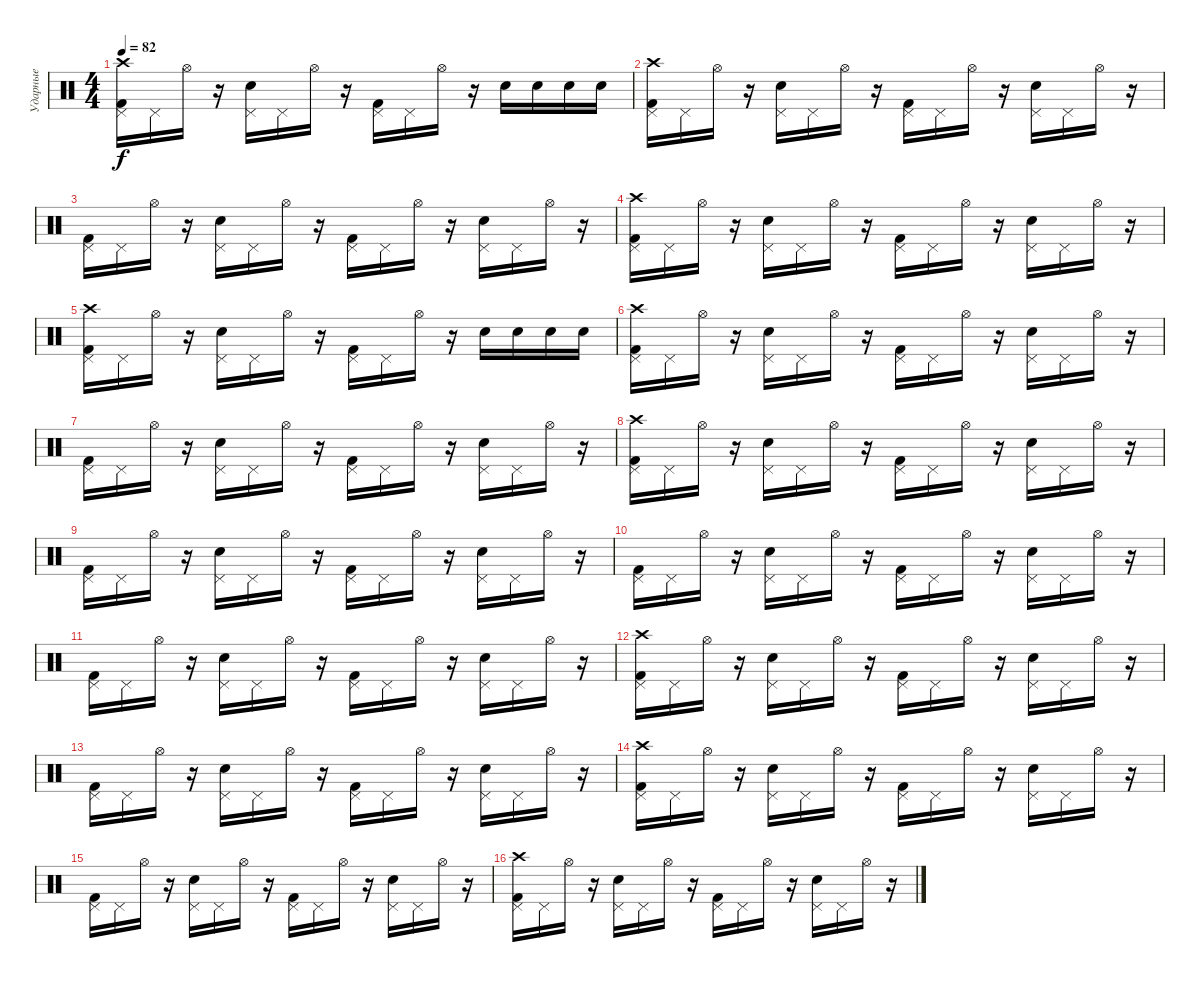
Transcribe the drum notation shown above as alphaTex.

\track ("Ударные" "Ударные") {instrument percussion}
\staff {score}
\articulation defaults
\ts (4 4)
\tempo 82
\clef neutral
\ks c
("Crash high (hit)" "Pedal Hi-Hat (hit)" "Kick (hit) 2").16{dy f} "Pedal Hi-Hat (hit)".16 "Hi-Hat (open)".16 r.16 ("Pedal Hi-Hat (hit)" "Electric Snare (hit)").16 "Pedal Hi-Hat (hit)".16 "Hi-Hat (open)".16 r.16 ("Pedal Hi-Hat (hit)" "Kick (hit) 2").16 "Pedal Hi-Hat (hit)".16 "Hi-Hat (open)".16 r.16 "Electric Snare (hit)".16 "Electric Snare (hit)".16 "Electric Snare (hit)".16 "Electric Snare (hit)".16 |
("Crash high (hit)" "Pedal Hi-Hat (hit)" "Kick (hit) 2").16 "Pedal Hi-Hat (hit)".16 "Hi-Hat (open)".16 r.16 ("Pedal Hi-Hat (hit)" "Electric Snare (hit)").16 "Pedal Hi-Hat (hit)".16 "Hi-Hat (open)".16 r.16 ("Pedal Hi-Hat (hit)" "Kick (hit) 2").16 "Pedal Hi-Hat (hit)".16 "Hi-Hat (open)".16 r.16 ("Pedal Hi-Hat (hit)" "Electric Snare (hit)").16 "Pedal Hi-Hat (hit)".16 "Hi-Hat (open)".16 r.16 |
("Pedal Hi-Hat (hit)" "Kick (hit) 2").16 "Pedal Hi-Hat (hit)".16 "Hi-Hat (open)".16 r.16 ("Pedal Hi-Hat (hit)" "Electric Snare (hit)").16 "Pedal Hi-Hat (hit)".16 "Hi-Hat (open)".16 r.16 ("Pedal Hi-Hat (hit)" "Kick (hit) 2").16 "Pedal Hi-Hat (hit)".16 "Hi-Hat (open)".16 r.16 ("Pedal Hi-Hat (hit)" "Electric Snare (hit)").16 "Pedal Hi-Hat (hit)".16 "Hi-Hat (open)".16 r.16 |
("Crash high (hit)" "Pedal Hi-Hat (hit)" "Kick (hit) 2").16 "Pedal Hi-Hat (hit)".16 "Hi-Hat (open)".16 r.16 ("Pedal Hi-Hat (hit)" "Electric Snare (hit)").16 "Pedal Hi-Hat (hit)".16 "Hi-Hat (open)".16 r.16 ("Pedal Hi-Hat (hit)" "Kick (hit) 2").16 "Pedal Hi-Hat (hit)".16 "Hi-Hat (open)".16 r.16 ("Pedal Hi-Hat (hit)" "Electric Snare (hit)").16 "Pedal Hi-Hat (hit)".16 "Hi-Hat (open)".16 r.16 |
("Crash high (hit)" "Pedal Hi-Hat (hit)" "Kick (hit) 2").16 "Pedal Hi-Hat (hit)".16 "Hi-Hat (open)".16 r.16 ("Pedal Hi-Hat (hit)" "Electric Snare (hit)").16 "Pedal Hi-Hat (hit)".16 "Hi-Hat (open)".16 r.16 ("Pedal Hi-Hat (hit)" "Kick (hit) 2").16 "Pedal Hi-Hat (hit)".16 "Hi-Hat (open)".16 r.16 "Electric Snare (hit)".16 "Electric Snare (hit)".16 "Electric Snare (hit)".16 "Electric Snare (hit)".16 |
("Crash high (hit)" "Pedal Hi-Hat (hit)" "Kick (hit) 2").16 "Pedal Hi-Hat (hit)".16 "Hi-Hat (open)".16 r.16 ("Pedal Hi-Hat (hit)" "Electric Snare (hit)").16 "Pedal Hi-Hat (hit)".16 "Hi-Hat (open)".16 r.16 ("Pedal Hi-Hat (hit)" "Kick (hit) 2").16 "Pedal Hi-Hat (hit)".16 "Hi-Hat (open)".16 r.16 ("Pedal Hi-Hat (hit)" "Electric Snare (hit)").16 "Pedal Hi-Hat (hit)".16 "Hi-Hat (open)".16 r.16 |
("Pedal Hi-Hat (hit)" "Kick (hit) 2").16 "Pedal Hi-Hat (hit)".16 "Hi-Hat (open)".16 r.16 ("Pedal Hi-Hat (hit)" "Electric Snare (hit)").16 "Pedal Hi-Hat (hit)".16 "Hi-Hat (open)".16 r.16 ("Pedal Hi-Hat (hit)" "Kick (hit) 2").16 "Pedal Hi-Hat (hit)".16 "Hi-Hat (open)".16 r.16 ("Pedal Hi-Hat (hit)" "Electric Snare (hit)").16 "Pedal Hi-Hat (hit)".16 "Hi-Hat (open)".16 r.16 |
("Crash high (hit)" "Pedal Hi-Hat (hit)" "Kick (hit) 2").16 "Pedal Hi-Hat (hit)".16 "Hi-Hat (open)".16 r.16 ("Pedal Hi-Hat (hit)" "Electric Snare (hit)").16 "Pedal Hi-Hat (hit)".16 "Hi-Hat (open)".16 r.16 ("Pedal Hi-Hat (hit)" "Kick (hit) 2").16 "Pedal Hi-Hat (hit)".16 "Hi-Hat (open)".16 r.16 ("Pedal Hi-Hat (hit)" "Electric Snare (hit)").16 "Pedal Hi-Hat (hit)".16 "Hi-Hat (open)".16 r.16 |
("Pedal Hi-Hat (hit)" "Kick (hit) 2").16 "Pedal Hi-Hat (hit)".16 "Hi-Hat (open)".16 r.16 ("Pedal Hi-Hat (hit)" "Electric Snare (hit)").16 "Pedal Hi-Hat (hit)".16 "Hi-Hat (open)".16 r.16 ("Pedal Hi-Hat (hit)" "Kick (hit) 2").16 "Pedal Hi-Hat (hit)".16 "Hi-Hat (open)".16 r.16 ("Pedal Hi-Hat (hit)" "Electric Snare (hit)").16 "Pedal Hi-Hat (hit)".16 "Hi-Hat (open)".16 r.16 |
("Pedal Hi-Hat (hit)" "Kick (hit) 2").16 "Pedal Hi-Hat (hit)".16 "Hi-Hat (open)".16 r.16 ("Pedal Hi-Hat (hit)" "Electric Snare (hit)").16 "Pedal Hi-Hat (hit)".16 "Hi-Hat (open)".16 r.16 ("Pedal Hi-Hat (hit)" "Kick (hit) 2").16 "Pedal Hi-Hat (hit)".16 "Hi-Hat (open)".16 r.16 ("Pedal Hi-Hat (hit)" "Electric Snare (hit)").16 "Pedal Hi-Hat (hit)".16 "Hi-Hat (open)".16 r.16 |
("Pedal Hi-Hat (hit)" "Kick (hit) 2").16 "Pedal Hi-Hat (hit)".16 "Hi-Hat (open)".16 r.16 ("Pedal Hi-Hat (hit)" "Electric Snare (hit)").16 "Pedal Hi-Hat (hit)".16 "Hi-Hat (open)".16 r.16 ("Pedal Hi-Hat (hit)" "Kick (hit) 2").16 "Pedal Hi-Hat (hit)".16 "Hi-Hat (open)".16 r.16 ("Pedal Hi-Hat (hit)" "Electric Snare (hit)").16 "Pedal Hi-Hat (hit)".16 "Hi-Hat (open)".16 r.16 |
("Crash high (hit)" "Pedal Hi-Hat (hit)" "Kick (hit) 2").16 "Pedal Hi-Hat (hit)".16 "Hi-Hat (open)".16 r.16 ("Pedal Hi-Hat (hit)" "Electric Snare (hit)").16 "Pedal Hi-Hat (hit)".16 "Hi-Hat (open)".16 r.16 ("Pedal Hi-Hat (hit)" "Kick (hit) 2").16 "Pedal Hi-Hat (hit)".16 "Hi-Hat (open)".16 r.16 ("Pedal Hi-Hat (hit)" "Electric Snare (hit)").16 "Pedal Hi-Hat (hit)".16 "Hi-Hat (open)".16 r.16 |
("Pedal Hi-Hat (hit)" "Kick (hit) 2").16 "Pedal Hi-Hat (hit)".16 "Hi-Hat (open)".16 r.16 ("Pedal Hi-Hat (hit)" "Electric Snare (hit)").16 "Pedal Hi-Hat (hit)".16 "Hi-Hat (open)".16 r.16 ("Pedal Hi-Hat (hit)" "Kick (hit) 2").16 "Pedal Hi-Hat (hit)".16 "Hi-Hat (open)".16 r.16 ("Pedal Hi-Hat (hit)" "Electric Snare (hit)").16 "Pedal Hi-Hat (hit)".16 "Hi-Hat (open)".16 r.16 |
("Crash high (hit)" "Pedal Hi-Hat (hit)" "Kick (hit) 2").16 "Pedal Hi-Hat (hit)".16 "Hi-Hat (open)".16 r.16 ("Pedal Hi-Hat (hit)" "Electric Snare (hit)").16 "Pedal Hi-Hat (hit)".16 "Hi-Hat (open)".16 r.16 ("Pedal Hi-Hat (hit)" "Kick (hit) 2").16 "Pedal Hi-Hat (hit)".16 "Hi-Hat (open)".16 r.16 ("Pedal Hi-Hat (hit)" "Electric Snare (hit)").16 "Pedal Hi-Hat (hit)".16 "Hi-Hat (open)".16 r.16 |
("Pedal Hi-Hat (hit)" "Kick (hit) 2").16 "Pedal Hi-Hat (hit)".16 "Hi-Hat (open)".16 r.16 ("Pedal Hi-Hat (hit)" "Electric Snare (hit)").16 "Pedal Hi-Hat (hit)".16 "Hi-Hat (open)".16 r.16 ("Pedal Hi-Hat (hit)" "Kick (hit) 2").16 "Pedal Hi-Hat (hit)".16 "Hi-Hat (open)".16 r.16 ("Pedal Hi-Hat (hit)" "Electric Snare (hit)").16 "Pedal Hi-Hat (hit)".16 "Hi-Hat (open)".16 r.16 |
("Crash high (hit)" "Pedal Hi-Hat (hit)" "Kick (hit) 2").16 "Pedal Hi-Hat (hit)".16 "Hi-Hat (open)".16 r.16 ("Pedal Hi-Hat (hit)" "Electric Snare (hit)").16 "Pedal Hi-Hat (hit)".16 "Hi-Hat (open)".16 r.16 ("Pedal Hi-Hat (hit)" "Kick (hit) 2").16 "Pedal Hi-Hat (hit)".16 "Hi-Hat (open)".16 r.16 ("Pedal Hi-Hat (hit)" "Electric Snare (hit)").16 "Pedal Hi-Hat (hit)".16 "Hi-Hat (open)".16 r.16
